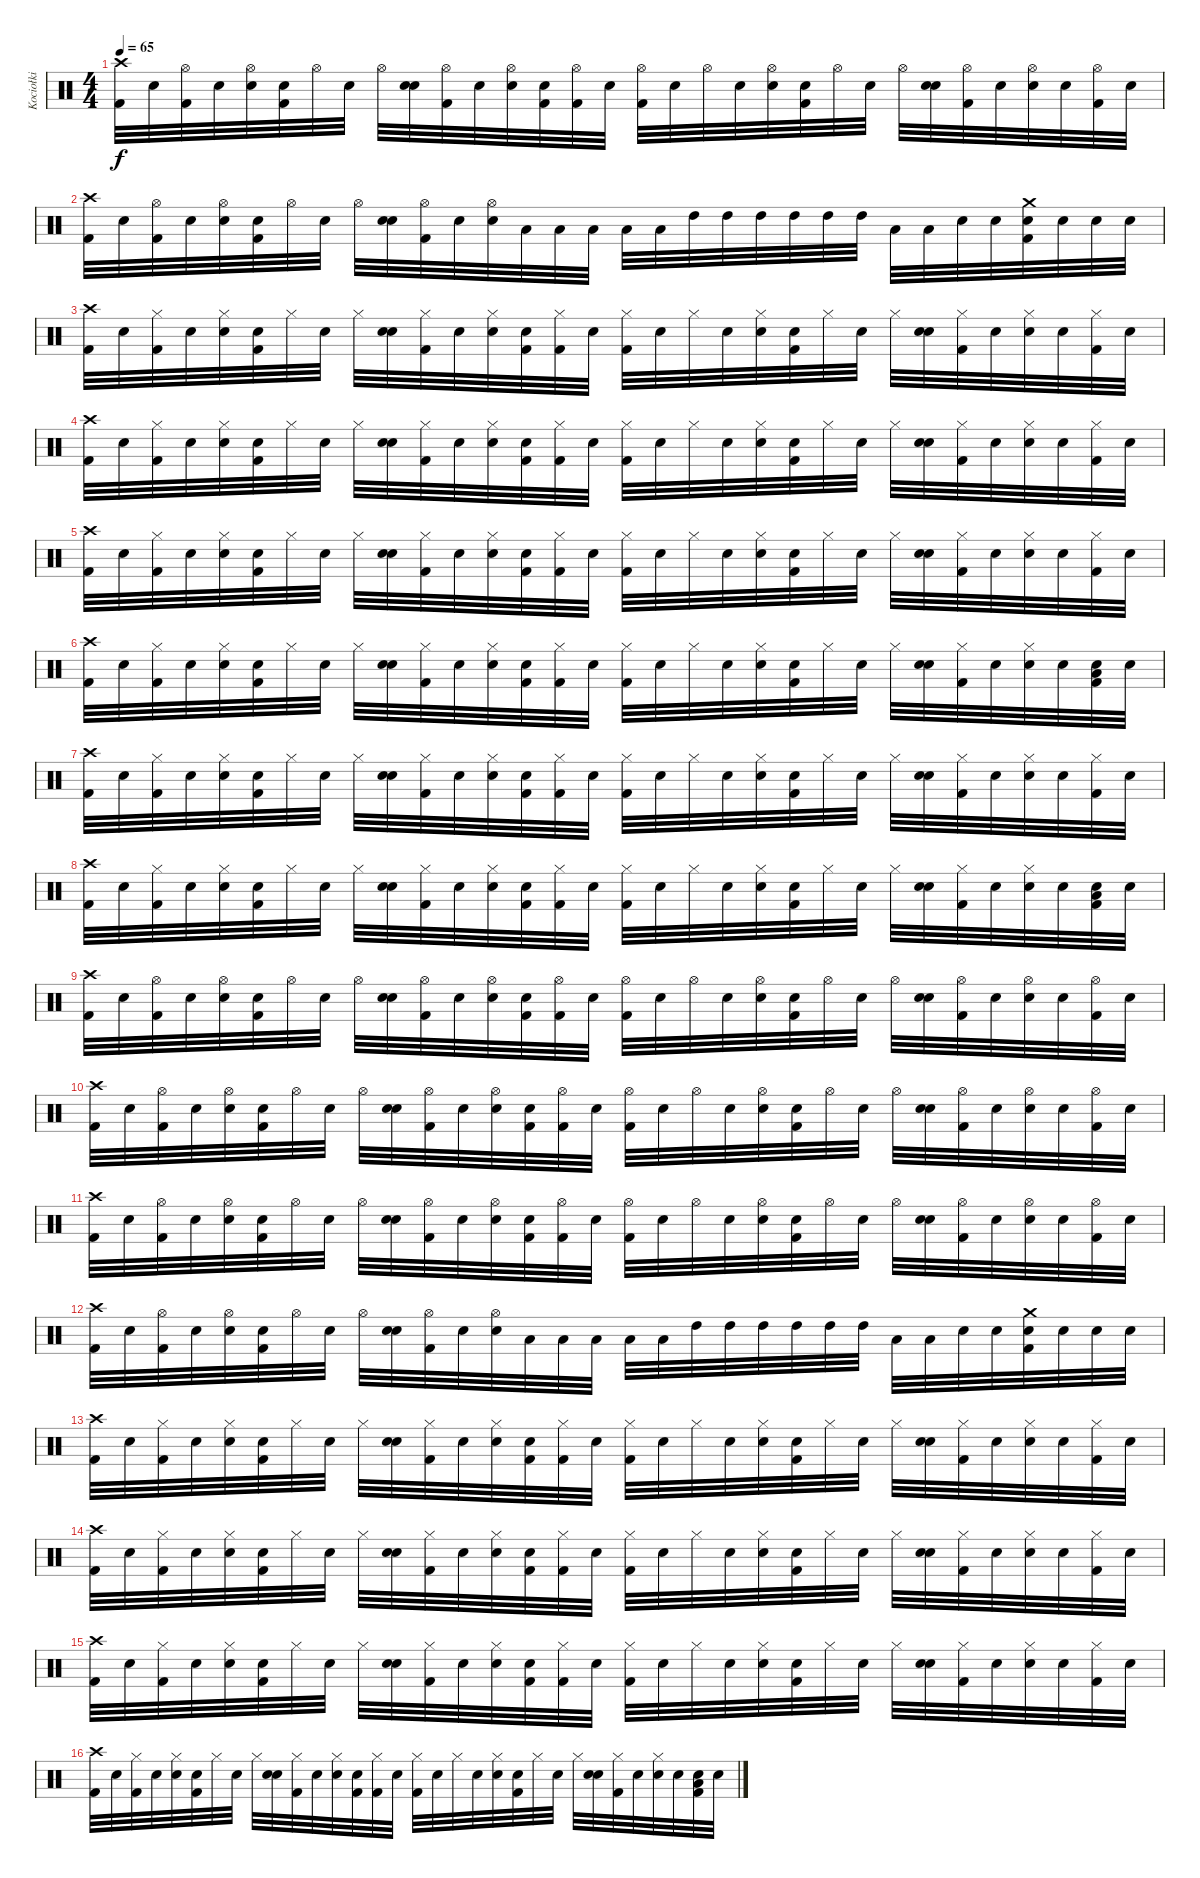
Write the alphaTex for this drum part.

\track ("Kociołki" "Kociołki") {instrument percussion}
\staff {score}
\articulation defaults
\ts (4 4)
\tempo 65
\clef neutral
\ks c
("Crash high (hit)" "Kick (hit) 2").32{dy f} "Snare (hit)".32 ("Hi-Hat (open)" "Kick (hit) 2").32 "Snare (hit)".32 ("Hi-Hat (open)" "Snare (hit) 2").32 ("Snare (hit)" "Kick (hit) 2").32 "Hi-Hat (open)".32 "Snare (hit)".32 "Hi-Hat (open)".32 ("Snare (hit)" "Snare (hit) 2").32 ("Hi-Hat (open)" "Kick (hit) 2").32 "Snare (hit)".32 ("Hi-Hat (open)" "Snare (hit) 2").32 ("Snare (hit)" "Kick (hit) 2").32 ("Hi-Hat (open)" "Kick (hit) 2").32 "Snare (hit)".32 ("Hi-Hat (open)" "Kick (hit) 2").32 "Snare (hit)".32 "Hi-Hat (open)".32 "Snare (hit)".32 ("Hi-Hat (open)" "Snare (hit) 2").32 ("Snare (hit)" "Kick (hit) 2").32 "Hi-Hat (open)".32 "Snare (hit)".32 "Hi-Hat (open)".32 ("Snare (hit)" "Snare (hit) 2").32 ("Hi-Hat (open)" "Kick (hit) 2").32 "Snare (hit)".32 ("Hi-Hat (open)" "Snare (hit) 2").32 "Snare (hit)".32 ("Hi-Hat (open)" "Kick (hit) 2").32 "Snare (hit)".32 |
("Crash high (hit)" "Kick (hit) 2").32 "Snare (hit)".32 ("Hi-Hat (open)" "Kick (hit) 2").32 "Snare (hit)".32 ("Hi-Hat (open)" "Snare (hit) 2").32 ("Snare (hit)" "Kick (hit) 2").32 "Hi-Hat (open)".32 "Snare (hit)".32 "Hi-Hat (open)".32 ("Snare (hit)" "Snare (hit) 2").32 ("Hi-Hat (open)" "Kick (hit) 2").32 "Snare (hit)".32 ("Hi-Hat (open)" "Snare (hit) 2").32 "Low Floor Tom (hit)".32 "Low Floor Tom (hit)".32 "Low Floor Tom (hit)".32 "Low Floor Tom (hit)".32 "Low Floor Tom (hit)".32 "High Tom (hit)".32 "High Tom (hit)".32 "High Tom (hit)".32 "High Tom (hit)".32 "High Tom (hit)".32 "High Tom (hit)".32 "Low Tom (hit)".32 "Low Tom (hit)".32 "Snare (hit)".32 "Snare (hit)".32 ("Crash medium (hit)" "Snare (hit)" "Kick (hit) 2").32 "Snare (hit)".32 "Snare (hit)".32 "Snare (hit)".32 |
("Crash high (hit)" "Kick (hit) 2").32 "Snare (hit)".32 ("Hi-Hat (closed)" "Kick (hit) 2").32 "Snare (hit)".32 ("Hi-Hat (closed)" "Snare (hit) 2").32 ("Snare (hit)" "Kick (hit) 2").32 "Hi-Hat (closed)".32 "Snare (hit)".32 "Hi-Hat (closed)".32 ("Snare (hit)" "Snare (hit) 2").32 ("Hi-Hat (closed)" "Kick (hit) 2").32 "Snare (hit)".32 ("Hi-Hat (closed)" "Snare (hit) 2").32 ("Snare (hit)" "Kick (hit) 2").32 ("Hi-Hat (closed)" "Kick (hit) 2").32 "Snare (hit)".32 ("Hi-Hat (closed)" "Kick (hit) 2").32 "Snare (hit)".32 "Hi-Hat (closed)".32 "Snare (hit)".32 ("Hi-Hat (closed)" "Snare (hit) 2").32 ("Snare (hit)" "Kick (hit) 2").32 "Hi-Hat (closed)".32 "Snare (hit)".32 "Hi-Hat (closed)".32 ("Snare (hit)" "Snare (hit) 2").32 ("Hi-Hat (closed)" "Kick (hit) 2").32 "Snare (hit)".32 ("Hi-Hat (closed)" "Snare (hit) 2").32 "Snare (hit)".32 ("Hi-Hat (closed)" "Kick (hit) 2").32 "Snare (hit)".32 |
("Crash high (hit)" "Kick (hit) 2").32 "Snare (hit)".32 ("Hi-Hat (closed)" "Kick (hit) 2").32 "Snare (hit)".32 ("Hi-Hat (closed)" "Snare (hit) 2").32 ("Snare (hit)" "Kick (hit) 2").32 "Hi-Hat (closed)".32 "Snare (hit)".32 "Hi-Hat (closed)".32 ("Snare (hit)" "Snare (hit) 2").32 ("Hi-Hat (closed)" "Kick (hit) 2").32 "Snare (hit)".32 ("Hi-Hat (closed)" "Snare (hit) 2").32 ("Snare (hit)" "Kick (hit) 2").32 ("Hi-Hat (closed)" "Kick (hit) 2").32 "Snare (hit)".32 ("Hi-Hat (closed)" "Kick (hit) 2").32 "Snare (hit)".32 "Hi-Hat (closed)".32 "Snare (hit)".32 ("Hi-Hat (closed)" "Snare (hit) 2").32 ("Snare (hit)" "Kick (hit) 2").32 "Hi-Hat (closed)".32 "Snare (hit)".32 "Hi-Hat (closed)".32 ("Snare (hit)" "Snare (hit) 2").32 ("Hi-Hat (closed)" "Kick (hit) 2").32 "Snare (hit)".32 ("Hi-Hat (closed)" "Snare (hit) 2").32 "Snare (hit)".32 ("Hi-Hat (closed)" "Kick (hit) 2").32 "Snare (hit)".32 |
("Crash high (hit)" "Kick (hit) 2").32 "Snare (hit)".32 ("Hi-Hat (closed)" "Kick (hit) 2").32 "Snare (hit)".32 ("Hi-Hat (closed)" "Snare (hit) 2").32 ("Snare (hit)" "Kick (hit) 2").32 "Hi-Hat (closed)".32 "Snare (hit)".32 "Hi-Hat (closed)".32 ("Snare (hit)" "Snare (hit) 2").32 ("Hi-Hat (closed)" "Kick (hit) 2").32 "Snare (hit)".32 ("Hi-Hat (closed)" "Snare (hit) 2").32 ("Snare (hit)" "Kick (hit) 2").32 ("Hi-Hat (closed)" "Kick (hit) 2").32 "Snare (hit)".32 ("Hi-Hat (closed)" "Kick (hit) 2").32 "Snare (hit)".32 "Hi-Hat (closed)".32 "Snare (hit)".32 ("Hi-Hat (closed)" "Snare (hit) 2").32 ("Snare (hit)" "Kick (hit) 2").32 "Hi-Hat (closed)".32 "Snare (hit)".32 "Hi-Hat (closed)".32 ("Snare (hit)" "Snare (hit) 2").32 ("Hi-Hat (closed)" "Kick (hit) 2").32 "Snare (hit)".32 ("Hi-Hat (closed)" "Snare (hit) 2").32 "Snare (hit)".32 ("Hi-Hat (closed)" "Kick (hit) 2").32 "Snare (hit)".32 |
("Crash high (hit)" "Kick (hit) 2").32 "Snare (hit)".32 ("Hi-Hat (closed)" "Kick (hit) 2").32 "Snare (hit)".32 ("Hi-Hat (closed)" "Snare (hit) 2").32 ("Snare (hit)" "Kick (hit) 2").32 "Hi-Hat (closed)".32 "Snare (hit)".32 "Hi-Hat (closed)".32 ("Snare (hit)" "Snare (hit) 2").32 ("Hi-Hat (closed)" "Kick (hit) 2").32 "Snare (hit)".32 ("Hi-Hat (closed)" "Snare (hit) 2").32 ("Snare (hit)" "Kick (hit) 2").32 ("Hi-Hat (closed)" "Kick (hit) 2").32 "Snare (hit)".32 ("Hi-Hat (closed)" "Kick (hit) 2").32 "Snare (hit)".32 "Hi-Hat (closed)".32 "Snare (hit)".32 ("Hi-Hat (closed)" "Snare (hit) 2").32 ("Snare (hit)" "Kick (hit) 2").32 "Hi-Hat (closed)".32 "Snare (hit)".32 "Hi-Hat (closed)".32 ("Snare (hit)" "Snare (hit) 2").32 ("Hi-Hat (closed)" "Kick (hit) 2").32 "Snare (hit)".32 ("Hi-Hat (closed)" "Snare (hit) 2").32 "Snare (hit)".32 ("Snare (hit) 2" "Low Tom (hit)" "Kick (hit) 2").32 "Snare (hit)".32 |
("Crash high (hit)" "Kick (hit) 2").32 "Snare (hit)".32 ("Hi-Hat (closed)" "Kick (hit) 2").32 "Snare (hit)".32 ("Hi-Hat (closed)" "Snare (hit) 2").32 ("Snare (hit)" "Kick (hit) 2").32 "Hi-Hat (closed)".32 "Snare (hit)".32 "Hi-Hat (closed)".32 ("Snare (hit)" "Snare (hit) 2").32 ("Hi-Hat (closed)" "Kick (hit) 2").32 "Snare (hit)".32 ("Hi-Hat (closed)" "Snare (hit) 2").32 ("Snare (hit)" "Kick (hit) 2").32 ("Hi-Hat (closed)" "Kick (hit) 2").32 "Snare (hit)".32 ("Hi-Hat (closed)" "Kick (hit) 2").32 "Snare (hit)".32 "Hi-Hat (closed)".32 "Snare (hit)".32 ("Hi-Hat (closed)" "Snare (hit) 2").32 ("Snare (hit)" "Kick (hit) 2").32 "Hi-Hat (closed)".32 "Snare (hit)".32 "Hi-Hat (closed)".32 ("Snare (hit)" "Snare (hit) 2").32 ("Hi-Hat (closed)" "Kick (hit) 2").32 "Snare (hit)".32 ("Hi-Hat (closed)" "Snare (hit) 2").32 "Snare (hit)".32 ("Hi-Hat (closed)" "Kick (hit) 2").32 "Snare (hit)".32 |
("Crash high (hit)" "Kick (hit) 2").32 "Snare (hit)".32 ("Hi-Hat (closed)" "Kick (hit) 2").32 "Snare (hit)".32 ("Hi-Hat (closed)" "Snare (hit) 2").32 ("Snare (hit)" "Kick (hit) 2").32 "Hi-Hat (closed)".32 "Snare (hit)".32 "Hi-Hat (closed)".32 ("Snare (hit)" "Snare (hit) 2").32 ("Hi-Hat (closed)" "Kick (hit) 2").32 "Snare (hit)".32 ("Hi-Hat (closed)" "Snare (hit) 2").32 ("Snare (hit)" "Kick (hit) 2").32 ("Hi-Hat (closed)" "Kick (hit) 2").32 "Snare (hit)".32 ("Hi-Hat (closed)" "Kick (hit) 2").32 "Snare (hit)".32 "Hi-Hat (closed)".32 "Snare (hit)".32 ("Hi-Hat (closed)" "Snare (hit) 2").32 ("Snare (hit)" "Kick (hit) 2").32 "Hi-Hat (closed)".32 "Snare (hit)".32 "Hi-Hat (closed)".32 ("Snare (hit)" "Snare (hit) 2").32 ("Hi-Hat (closed)" "Kick (hit) 2").32 "Snare (hit)".32 ("Hi-Hat (closed)" "Snare (hit) 2").32 "Snare (hit)".32 ("Snare (hit) 2" "Low Tom (hit)" "Kick (hit) 2").32 "Snare (hit)".32 |
("Crash high (hit)" "Kick (hit) 2").32 "Snare (hit)".32 ("Hi-Hat (open)" "Kick (hit) 2").32 "Snare (hit)".32 ("Hi-Hat (open)" "Snare (hit) 2").32 ("Snare (hit)" "Kick (hit) 2").32 "Hi-Hat (open)".32 "Snare (hit)".32 "Hi-Hat (open)".32 ("Snare (hit)" "Snare (hit) 2").32 ("Hi-Hat (open)" "Kick (hit) 2").32 "Snare (hit)".32 ("Hi-Hat (open)" "Snare (hit) 2").32 ("Snare (hit)" "Kick (hit) 2").32 ("Hi-Hat (open)" "Kick (hit) 2").32 "Snare (hit)".32 ("Hi-Hat (open)" "Kick (hit) 2").32 "Snare (hit)".32 "Hi-Hat (open)".32 "Snare (hit)".32 ("Hi-Hat (open)" "Snare (hit) 2").32 ("Snare (hit)" "Kick (hit) 2").32 "Hi-Hat (open)".32 "Snare (hit)".32 "Hi-Hat (open)".32 ("Snare (hit)" "Snare (hit) 2").32 ("Hi-Hat (open)" "Kick (hit) 2").32 "Snare (hit)".32 ("Hi-Hat (open)" "Snare (hit) 2").32 "Snare (hit)".32 ("Hi-Hat (open)" "Kick (hit) 2").32 "Snare (hit)".32 |
("Crash high (hit)" "Kick (hit) 2").32 "Snare (hit)".32 ("Hi-Hat (open)" "Kick (hit) 2").32 "Snare (hit)".32 ("Hi-Hat (open)" "Snare (hit) 2").32 ("Snare (hit)" "Kick (hit) 2").32 "Hi-Hat (open)".32 "Snare (hit)".32 "Hi-Hat (open)".32 ("Snare (hit)" "Snare (hit) 2").32 ("Hi-Hat (open)" "Kick (hit) 2").32 "Snare (hit)".32 ("Hi-Hat (open)" "Snare (hit) 2").32 ("Snare (hit)" "Kick (hit) 2").32 ("Hi-Hat (open)" "Kick (hit) 2").32 "Snare (hit)".32 ("Hi-Hat (open)" "Kick (hit) 2").32 "Snare (hit)".32 "Hi-Hat (open)".32 "Snare (hit)".32 ("Hi-Hat (open)" "Snare (hit) 2").32 ("Snare (hit)" "Kick (hit) 2").32 "Hi-Hat (open)".32 "Snare (hit)".32 "Hi-Hat (open)".32 ("Snare (hit)" "Snare (hit) 2").32 ("Hi-Hat (open)" "Kick (hit) 2").32 "Snare (hit)".32 ("Hi-Hat (open)" "Snare (hit) 2").32 "Snare (hit)".32 ("Hi-Hat (open)" "Kick (hit) 2").32 "Snare (hit)".32 |
("Crash high (hit)" "Kick (hit) 2").32 "Snare (hit)".32 ("Hi-Hat (open)" "Kick (hit) 2").32 "Snare (hit)".32 ("Hi-Hat (open)" "Snare (hit) 2").32 ("Snare (hit)" "Kick (hit) 2").32 "Hi-Hat (open)".32 "Snare (hit)".32 "Hi-Hat (open)".32 ("Snare (hit)" "Snare (hit) 2").32 ("Hi-Hat (open)" "Kick (hit) 2").32 "Snare (hit)".32 ("Hi-Hat (open)" "Snare (hit) 2").32 ("Snare (hit)" "Kick (hit) 2").32 ("Hi-Hat (open)" "Kick (hit) 2").32 "Snare (hit)".32 ("Hi-Hat (open)" "Kick (hit) 2").32 "Snare (hit)".32 "Hi-Hat (open)".32 "Snare (hit)".32 ("Hi-Hat (open)" "Snare (hit) 2").32 ("Snare (hit)" "Kick (hit) 2").32 "Hi-Hat (open)".32 "Snare (hit)".32 "Hi-Hat (open)".32 ("Snare (hit)" "Snare (hit) 2").32 ("Hi-Hat (open)" "Kick (hit) 2").32 "Snare (hit)".32 ("Hi-Hat (open)" "Snare (hit) 2").32 "Snare (hit)".32 ("Hi-Hat (open)" "Kick (hit) 2").32 "Snare (hit)".32 |
("Crash high (hit)" "Kick (hit) 2").32 "Snare (hit)".32 ("Hi-Hat (open)" "Kick (hit) 2").32 "Snare (hit)".32 ("Hi-Hat (open)" "Snare (hit) 2").32 ("Snare (hit)" "Kick (hit) 2").32 "Hi-Hat (open)".32 "Snare (hit)".32 "Hi-Hat (open)".32 ("Snare (hit)" "Snare (hit) 2").32 ("Hi-Hat (open)" "Kick (hit) 2").32 "Snare (hit)".32 ("Hi-Hat (open)" "Snare (hit) 2").32 "Low Floor Tom (hit)".32 "Low Floor Tom (hit)".32 "Low Floor Tom (hit)".32 "Low Floor Tom (hit)".32 "Low Floor Tom (hit)".32 "High Tom (hit)".32 "High Tom (hit)".32 "High Tom (hit)".32 "High Tom (hit)".32 "High Tom (hit)".32 "High Tom (hit)".32 "Low Tom (hit)".32 "Low Tom (hit)".32 "Snare (hit)".32 "Snare (hit)".32 ("Crash medium (hit)" "Snare (hit)" "Kick (hit) 2").32 "Snare (hit)".32 "Snare (hit)".32 "Snare (hit)".32 |
("Crash high (hit)" "Kick (hit) 2").32 "Snare (hit)".32 ("Hi-Hat (closed)" "Kick (hit) 2").32 "Snare (hit)".32 ("Hi-Hat (closed)" "Snare (hit) 2").32 ("Snare (hit)" "Kick (hit) 2").32 "Hi-Hat (closed)".32 "Snare (hit)".32 "Hi-Hat (closed)".32 ("Snare (hit)" "Snare (hit) 2").32 ("Hi-Hat (closed)" "Kick (hit) 2").32 "Snare (hit)".32 ("Hi-Hat (closed)" "Snare (hit) 2").32 ("Snare (hit)" "Kick (hit) 2").32 ("Hi-Hat (closed)" "Kick (hit) 2").32 "Snare (hit)".32 ("Hi-Hat (closed)" "Kick (hit) 2").32 "Snare (hit)".32 "Hi-Hat (closed)".32 "Snare (hit)".32 ("Hi-Hat (closed)" "Snare (hit) 2").32 ("Snare (hit)" "Kick (hit) 2").32 "Hi-Hat (closed)".32 "Snare (hit)".32 "Hi-Hat (closed)".32 ("Snare (hit)" "Snare (hit) 2").32 ("Hi-Hat (closed)" "Kick (hit) 2").32 "Snare (hit)".32 ("Hi-Hat (closed)" "Snare (hit) 2").32 "Snare (hit)".32 ("Hi-Hat (closed)" "Kick (hit) 2").32 "Snare (hit)".32 |
("Crash high (hit)" "Kick (hit) 2").32 "Snare (hit)".32 ("Hi-Hat (closed)" "Kick (hit) 2").32 "Snare (hit)".32 ("Hi-Hat (closed)" "Snare (hit) 2").32 ("Snare (hit)" "Kick (hit) 2").32 "Hi-Hat (closed)".32 "Snare (hit)".32 "Hi-Hat (closed)".32 ("Snare (hit)" "Snare (hit) 2").32 ("Hi-Hat (closed)" "Kick (hit) 2").32 "Snare (hit)".32 ("Hi-Hat (closed)" "Snare (hit) 2").32 ("Snare (hit)" "Kick (hit) 2").32 ("Hi-Hat (closed)" "Kick (hit) 2").32 "Snare (hit)".32 ("Hi-Hat (closed)" "Kick (hit) 2").32 "Snare (hit)".32 "Hi-Hat (closed)".32 "Snare (hit)".32 ("Hi-Hat (closed)" "Snare (hit) 2").32 ("Snare (hit)" "Kick (hit) 2").32 "Hi-Hat (closed)".32 "Snare (hit)".32 "Hi-Hat (closed)".32 ("Snare (hit)" "Snare (hit) 2").32 ("Hi-Hat (closed)" "Kick (hit) 2").32 "Snare (hit)".32 ("Hi-Hat (closed)" "Snare (hit) 2").32 "Snare (hit)".32 ("Hi-Hat (closed)" "Kick (hit) 2").32 "Snare (hit)".32 |
("Crash high (hit)" "Kick (hit) 2").32 "Snare (hit)".32 ("Hi-Hat (closed)" "Kick (hit) 2").32 "Snare (hit)".32 ("Hi-Hat (closed)" "Snare (hit) 2").32 ("Snare (hit)" "Kick (hit) 2").32 "Hi-Hat (closed)".32 "Snare (hit)".32 "Hi-Hat (closed)".32 ("Snare (hit)" "Snare (hit) 2").32 ("Hi-Hat (closed)" "Kick (hit) 2").32 "Snare (hit)".32 ("Hi-Hat (closed)" "Snare (hit) 2").32 ("Snare (hit)" "Kick (hit) 2").32 ("Hi-Hat (closed)" "Kick (hit) 2").32 "Snare (hit)".32 ("Hi-Hat (closed)" "Kick (hit) 2").32 "Snare (hit)".32 "Hi-Hat (closed)".32 "Snare (hit)".32 ("Hi-Hat (closed)" "Snare (hit) 2").32 ("Snare (hit)" "Kick (hit) 2").32 "Hi-Hat (closed)".32 "Snare (hit)".32 "Hi-Hat (closed)".32 ("Snare (hit)" "Snare (hit) 2").32 ("Hi-Hat (closed)" "Kick (hit) 2").32 "Snare (hit)".32 ("Hi-Hat (closed)" "Snare (hit) 2").32 "Snare (hit)".32 ("Hi-Hat (closed)" "Kick (hit) 2").32 "Snare (hit)".32 |
("Crash high (hit)" "Kick (hit) 2").32 "Snare (hit)".32 ("Hi-Hat (closed)" "Kick (hit) 2").32 "Snare (hit)".32 ("Hi-Hat (closed)" "Snare (hit) 2").32 ("Snare (hit)" "Kick (hit) 2").32 "Hi-Hat (closed)".32 "Snare (hit)".32 "Hi-Hat (closed)".32 ("Snare (hit)" "Snare (hit) 2").32 ("Hi-Hat (closed)" "Kick (hit) 2").32 "Snare (hit)".32 ("Hi-Hat (closed)" "Snare (hit) 2").32 ("Snare (hit)" "Kick (hit) 2").32 ("Hi-Hat (closed)" "Kick (hit) 2").32 "Snare (hit)".32 ("Hi-Hat (closed)" "Kick (hit) 2").32 "Snare (hit)".32 "Hi-Hat (closed)".32 "Snare (hit)".32 ("Hi-Hat (closed)" "Snare (hit) 2").32 ("Snare (hit)" "Kick (hit) 2").32 "Hi-Hat (closed)".32 "Snare (hit)".32 "Hi-Hat (closed)".32 ("Snare (hit)" "Snare (hit) 2").32 ("Hi-Hat (closed)" "Kick (hit) 2").32 "Snare (hit)".32 ("Hi-Hat (closed)" "Snare (hit) 2").32 "Snare (hit)".32 ("Snare (hit) 2" "Low Tom (hit)" "Kick (hit) 2").32 "Snare (hit)".32
